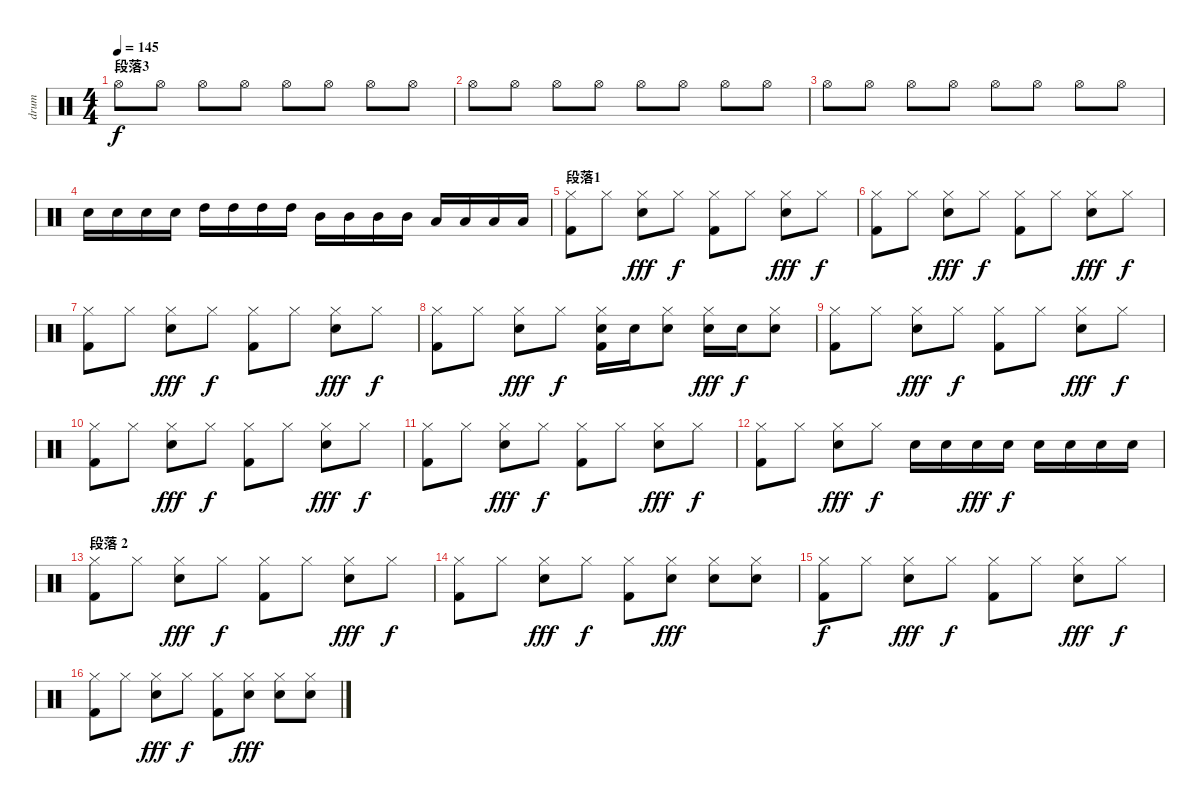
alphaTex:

\track ("drum" "drum") {instrument percussion}
\staff {score}
\articulation defaults
\ts (4 4)
\section ("" "段落3")
\tempo 145
\clef neutral
\ks c "Hi-Hat (open)".8{dy f} "Hi-Hat (open)".8 "Hi-Hat (open)".8 "Hi-Hat (open)".8 "Hi-Hat (open)".8 "Hi-Hat (open)".8 "Hi-Hat (open)".8 "Hi-Hat (open)".8
|
"Hi-Hat (open)".8 "Hi-Hat (open)".8 "Hi-Hat (open)".8 "Hi-Hat (open)".8 "Hi-Hat (open)".8 "Hi-Hat (open)".8 "Hi-Hat (open)".8 "Hi-Hat (open)".8 |
"Hi-Hat (open)".8 "Hi-Hat (open)".8 "Hi-Hat (open)".8 "Hi-Hat (open)".8 "Hi-Hat (open)".8 "Hi-Hat (open)".8 "Hi-Hat (open)".8 "Hi-Hat (open)".8 |
"Electric Snare (hit)".16 "Electric Snare (hit)".16 "Electric Snare (hit)".16 "Electric Snare (hit)".16 "High Tom (hit)".16 "High Tom (hit)".16 "High Tom (hit)".16 "High Tom (hit)".16 "Mid Tom (hit)".16 "Mid Tom (hit)".16 "Mid Tom (hit)".16 "Mid Tom (hit)".16 "Low Tom (hit)".16 "Low Tom (hit)".16 "Low Tom (hit)".16 "Low Tom (hit)".16 |
\section ("" "段落1")
("Hi-Hat (closed)" "Kick (hit) 2").8 "Hi-Hat (closed)".8 ("Hi-Hat (closed)" "Electric Snare (hit)").8{dy fff} "Hi-Hat (closed)".8{dy f} ("Hi-Hat (closed)" "Kick (hit) 2").8 "Hi-Hat (closed)".8 ("Hi-Hat (closed)" "Electric Snare (hit)").8{dy fff} "Hi-Hat (closed)".8{dy f} |
("Hi-Hat (closed)" "Kick (hit) 2").8 "Hi-Hat (closed)".8 ("Hi-Hat (closed)" "Electric Snare (hit)").8{dy fff} "Hi-Hat (closed)".8{dy f} ("Hi-Hat (closed)" "Kick (hit) 2").8 "Hi-Hat (closed)".8 ("Hi-Hat (closed)" "Electric Snare (hit)").8{dy fff} "Hi-Hat (closed)".8{dy f} |
("Hi-Hat (closed)" "Kick (hit) 2").8 "Hi-Hat (closed)".8 ("Hi-Hat (closed)" "Electric Snare (hit)").8{dy fff} "Hi-Hat (closed)".8{dy f} ("Hi-Hat (closed)" "Kick (hit) 2").8 "Hi-Hat (closed)".8 ("Hi-Hat (closed)" "Electric Snare (hit)").8{dy fff} "Hi-Hat (closed)".8{dy f} |
("Hi-Hat (closed)" "Kick (hit) 2").8 "Hi-Hat (closed)".8 ("Hi-Hat (closed)" "Electric Snare (hit)").8{dy fff} "Hi-Hat (closed)".8{dy f} ("Hi-Hat (closed)" "Electric Snare (hit)" "Kick (hit) 2").16 "Electric Snare (hit)".16 ("Hi-Hat (closed)" "Electric Snare (hit)").8 ("Hi-Hat (closed)" "Electric Snare (hit)").16{dy fff} "Electric Snare (hit)".16{dy f} ("Hi-Hat (closed)" "Electric Snare (hit)").8 |
("Hi-Hat (closed)" "Kick (hit) 2").8 "Hi-Hat (closed)".8 ("Hi-Hat (closed)" "Electric Snare (hit)").8{dy fff} "Hi-Hat (closed)".8{dy f} ("Hi-Hat (closed)" "Kick (hit) 2").8 "Hi-Hat (closed)".8 ("Hi-Hat (closed)" "Electric Snare (hit)").8{dy fff} "Hi-Hat (closed)".8{dy f} |
("Hi-Hat (closed)" "Kick (hit) 2").8 "Hi-Hat (closed)".8 ("Hi-Hat (closed)" "Electric Snare (hit)").8{dy fff} "Hi-Hat (closed)".8{dy f} ("Hi-Hat (closed)" "Kick (hit) 2").8 "Hi-Hat (closed)".8 ("Hi-Hat (closed)" "Electric Snare (hit)").8{dy fff} "Hi-Hat (closed)".8{dy f} |
("Hi-Hat (closed)" "Kick (hit) 2").8 "Hi-Hat (closed)".8 ("Hi-Hat (closed)" "Electric Snare (hit)").8{dy fff} "Hi-Hat (closed)".8{dy f} ("Hi-Hat (closed)" "Kick (hit) 2").8 "Hi-Hat (closed)".8 ("Hi-Hat (closed)" "Electric Snare (hit)").8{dy fff} "Hi-Hat (closed)".8{dy f} |
("Hi-Hat (closed)" "Kick (hit) 2").8 "Hi-Hat (closed)".8 ("Hi-Hat (closed)" "Electric Snare (hit)").8{dy fff} "Hi-Hat (closed)".8{dy f} "Electric Snare (hit)".16 "Electric Snare (hit)".16 "Electric Snare (hit)".16{dy fff} "Electric Snare (hit)".16{dy f} "Electric Snare (hit)".16 "Electric Snare (hit)".16 "Electric Snare (hit)".16 "Electric Snare (hit)".16 |
\section ("" "段落 2")
("Hi-Hat (closed)" "Kick (hit) 2").8 "Hi-Hat (closed)".8 ("Hi-Hat (closed)" "Electric Snare (hit)").8{dy fff} "Hi-Hat (closed)".8{dy f} ("Hi-Hat (closed)" "Kick (hit) 2").8 "Hi-Hat (closed)".8 ("Hi-Hat (closed)" "Electric Snare (hit)").8{dy fff} "Hi-Hat (closed)".8{dy f} |
("Hi-Hat (closed)" "Kick (hit) 2").8 "Hi-Hat (closed)".8 ("Hi-Hat (closed)" "Electric Snare (hit)").8{dy fff} "Hi-Hat (closed)".8{dy f} ("Hi-Hat (closed)" "Kick (hit) 2").8 ("Hi-Hat (closed)" "Electric Snare (hit)").8{dy fff} ("Hi-Hat (closed)" "Electric Snare (hit)").8 ("Hi-Hat (closed)" "Electric Snare (hit)").8 |
("Hi-Hat (closed)" "Kick (hit) 2").8{dy f} "Hi-Hat (closed)".8 ("Hi-Hat (closed)" "Electric Snare (hit)").8{dy fff} "Hi-Hat (closed)".8{dy f} ("Hi-Hat (closed)" "Kick (hit) 2").8 "Hi-Hat (closed)".8 ("Hi-Hat (closed)" "Electric Snare (hit)").8{dy fff} "Hi-Hat (closed)".8{dy f} |
("Hi-Hat (closed)" "Kick (hit) 2").8 "Hi-Hat (closed)".8 ("Hi-Hat (closed)" "Electric Snare (hit)").8{dy fff} "Hi-Hat (closed)".8{dy f} ("Hi-Hat (closed)" "Kick (hit) 2").8 ("Hi-Hat (closed)" "Electric Snare (hit)").8{dy fff} ("Hi-Hat (closed)" "Electric Snare (hit)").8 ("Hi-Hat (closed)" "Electric Snare (hit)").8
